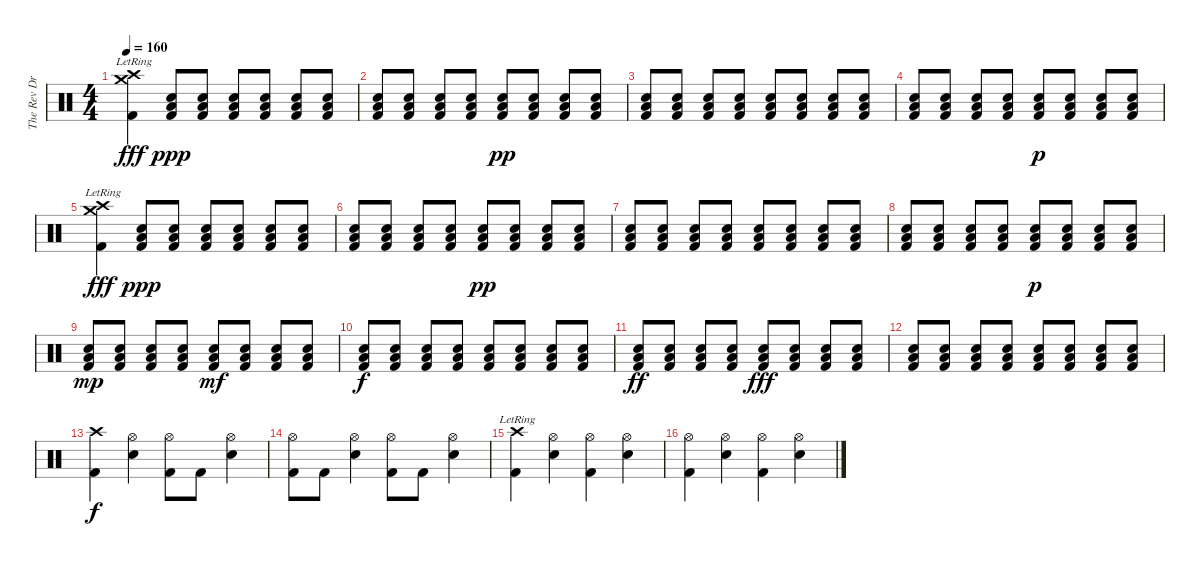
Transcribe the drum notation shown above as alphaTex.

\track ("The Rev Drum" "The Rev Dr") {instrument percussion}
\staff {score}
\articulation defaults
\ts (4 4)
\tempo 160
\clef neutral
\ks c
("Kick (hit) 2" "Crash high (hit)"{lr} "Crash medium (hit)"{lr}).4{dy fff} ("Low Tom (hit)" "Electric Snare (hit)" "Kick (hit) 2").8{dy ppp} ("Low Tom (hit)" "Electric Snare (hit)" "Kick (hit) 2").8 ("Low Tom (hit)" "Electric Snare (hit)" "Kick (hit) 2").8 ("Low Tom (hit)" "Electric Snare (hit)" "Kick (hit) 2").8 ("Low Tom (hit)" "Electric Snare (hit)" "Kick (hit) 2").8 ("Low Tom (hit)" "Electric Snare (hit)" "Kick (hit) 2").8 |
("Low Tom (hit)" "Electric Snare (hit)" "Kick (hit) 2").8 ("Low Tom (hit)" "Electric Snare (hit)" "Kick (hit) 2").8 ("Low Tom (hit)" "Electric Snare (hit)" "Kick (hit) 2").8 ("Low Tom (hit)" "Electric Snare (hit)" "Kick (hit) 2").8 ("Low Tom (hit)" "Electric Snare (hit)" "Kick (hit) 2").8{dy pp} ("Low Tom (hit)" "Electric Snare (hit)" "Kick (hit) 2").8 ("Low Tom (hit)" "Electric Snare (hit)" "Kick (hit) 2").8 ("Low Tom (hit)" "Electric Snare (hit)" "Kick (hit) 2").8 |
("Low Tom (hit)" "Electric Snare (hit)" "Kick (hit) 2").8 ("Low Tom (hit)" "Electric Snare (hit)" "Kick (hit) 2").8 ("Low Tom (hit)" "Electric Snare (hit)" "Kick (hit) 2").8 ("Low Tom (hit)" "Electric Snare (hit)" "Kick (hit) 2").8 ("Low Tom (hit)" "Electric Snare (hit)" "Kick (hit) 2").8 ("Low Tom (hit)" "Electric Snare (hit)" "Kick (hit) 2").8 ("Low Tom (hit)" "Electric Snare (hit)" "Kick (hit) 2").8 ("Low Tom (hit)" "Electric Snare (hit)" "Kick (hit) 2").8 |
("Low Tom (hit)" "Electric Snare (hit)" "Kick (hit) 2").8 ("Low Tom (hit)" "Electric Snare (hit)" "Kick (hit) 2").8 ("Low Tom (hit)" "Electric Snare (hit)" "Kick (hit) 2").8 ("Low Tom (hit)" "Electric Snare (hit)" "Kick (hit) 2").8 ("Low Tom (hit)" "Electric Snare (hit)" "Kick (hit) 2").8{dy p} ("Low Tom (hit)" "Electric Snare (hit)" "Kick (hit) 2").8 ("Low Tom (hit)" "Electric Snare (hit)" "Kick (hit) 2").8 ("Low Tom (hit)" "Electric Snare (hit)" "Kick (hit) 2").8 |
("Kick (hit) 2" "Crash high (hit)"{lr} "Crash medium (hit)"{lr}).4{dy fff} ("Low Tom (hit)" "Electric Snare (hit)" "Kick (hit) 2").8{dy ppp} ("Low Tom (hit)" "Electric Snare (hit)" "Kick (hit) 2").8 ("Low Tom (hit)" "Electric Snare (hit)" "Kick (hit) 2").8 ("Low Tom (hit)" "Electric Snare (hit)" "Kick (hit) 2").8 ("Low Tom (hit)" "Electric Snare (hit)" "Kick (hit) 2").8 ("Low Tom (hit)" "Electric Snare (hit)" "Kick (hit) 2").8 |
("Low Tom (hit)" "Electric Snare (hit)" "Kick (hit) 2").8 ("Low Tom (hit)" "Electric Snare (hit)" "Kick (hit) 2").8 ("Low Tom (hit)" "Electric Snare (hit)" "Kick (hit) 2").8 ("Low Tom (hit)" "Electric Snare (hit)" "Kick (hit) 2").8 ("Low Tom (hit)" "Electric Snare (hit)" "Kick (hit) 2").8{dy pp} ("Low Tom (hit)" "Electric Snare (hit)" "Kick (hit) 2").8 ("Low Tom (hit)" "Electric Snare (hit)" "Kick (hit) 2").8 ("Low Tom (hit)" "Electric Snare (hit)" "Kick (hit) 2").8 |
("Low Tom (hit)" "Electric Snare (hit)" "Kick (hit) 2").8 ("Low Tom (hit)" "Electric Snare (hit)" "Kick (hit) 2").8 ("Low Tom (hit)" "Electric Snare (hit)" "Kick (hit) 2").8 ("Low Tom (hit)" "Electric Snare (hit)" "Kick (hit) 2").8 ("Low Tom (hit)" "Electric Snare (hit)" "Kick (hit) 2").8 ("Low Tom (hit)" "Electric Snare (hit)" "Kick (hit) 2").8 ("Low Tom (hit)" "Electric Snare (hit)" "Kick (hit) 2").8 ("Low Tom (hit)" "Electric Snare (hit)" "Kick (hit) 2").8 |
("Low Tom (hit)" "Electric Snare (hit)" "Kick (hit) 2").8 ("Low Tom (hit)" "Electric Snare (hit)" "Kick (hit) 2").8 ("Low Tom (hit)" "Electric Snare (hit)" "Kick (hit) 2").8 ("Low Tom (hit)" "Electric Snare (hit)" "Kick (hit) 2").8 ("Low Tom (hit)" "Electric Snare (hit)" "Kick (hit) 2").8{dy p} ("Low Tom (hit)" "Electric Snare (hit)" "Kick (hit) 2").8 ("Low Tom (hit)" "Electric Snare (hit)" "Kick (hit) 2").8 ("Low Tom (hit)" "Electric Snare (hit)" "Kick (hit) 2").8 |
("Low Tom (hit)" "Electric Snare (hit)" "Kick (hit) 2").8{dy mp} ("Low Tom (hit)" "Electric Snare (hit)" "Kick (hit) 2").8 ("Low Tom (hit)" "Electric Snare (hit)" "Kick (hit) 2").8 ("Low Tom (hit)" "Electric Snare (hit)" "Kick (hit) 2").8 ("Low Tom (hit)" "Electric Snare (hit)" "Kick (hit) 2").8{dy mf} ("Low Tom (hit)" "Electric Snare (hit)" "Kick (hit) 2").8 ("Low Tom (hit)" "Electric Snare (hit)" "Kick (hit) 2").8 ("Low Tom (hit)" "Electric Snare (hit)" "Kick (hit) 2").8 |
("Low Tom (hit)" "Electric Snare (hit)" "Kick (hit) 2").8{dy f} ("Low Tom (hit)" "Electric Snare (hit)" "Kick (hit) 2").8 ("Low Tom (hit)" "Electric Snare (hit)" "Kick (hit) 2").8 ("Low Tom (hit)" "Electric Snare (hit)" "Kick (hit) 2").8 ("Low Tom (hit)" "Electric Snare (hit)" "Kick (hit) 2").8 ("Low Tom (hit)" "Electric Snare (hit)" "Kick (hit) 2").8 ("Low Tom (hit)" "Electric Snare (hit)" "Kick (hit) 2").8 ("Low Tom (hit)" "Electric Snare (hit)" "Kick (hit) 2").8 |
("Low Tom (hit)" "Electric Snare (hit)" "Kick (hit) 2").8{dy ff} ("Low Tom (hit)" "Electric Snare (hit)" "Kick (hit) 2").8 ("Low Tom (hit)" "Electric Snare (hit)" "Kick (hit) 2").8 ("Low Tom (hit)" "Electric Snare (hit)" "Kick (hit) 2").8 ("Low Tom (hit)" "Electric Snare (hit)" "Kick (hit) 2").8{dy fff} ("Low Tom (hit)" "Electric Snare (hit)" "Kick (hit) 2").8 ("Low Tom (hit)" "Electric Snare (hit)" "Kick (hit) 2").8 ("Low Tom (hit)" "Electric Snare (hit)" "Kick (hit) 2").8 |
("Low Tom (hit)" "Electric Snare (hit)" "Kick (hit) 2").8 ("Low Tom (hit)" "Electric Snare (hit)" "Kick (hit) 2").8 ("Low Tom (hit)" "Electric Snare (hit)" "Kick (hit) 2").8 ("Low Tom (hit)" "Electric Snare (hit)" "Kick (hit) 2").8 ("Low Tom (hit)" "Electric Snare (hit)" "Kick (hit) 2").8 ("Low Tom (hit)" "Electric Snare (hit)" "Kick (hit) 2").8 ("Low Tom (hit)" "Electric Snare (hit)" "Kick (hit) 2").8 ("Low Tom (hit)" "Electric Snare (hit)" "Kick (hit) 2").8 |
("Crash high (hit)" "Kick (hit) 2").4{dy f} ("Hi-Hat (open)" "Electric Snare (hit)").4 ("Hi-Hat (open)" "Kick (hit) 2").8 "Kick (hit) 2".8 ("Hi-Hat (open)" "Electric Snare (hit)").4 |
("Hi-Hat (open)" "Kick (hit) 2").8 "Kick (hit) 2".8 ("Hi-Hat (open)" "Electric Snare (hit)").4 ("Hi-Hat (open)" "Kick (hit) 2").8 "Kick (hit) 2".8 ("Hi-Hat (open)" "Electric Snare (hit)").4 |
("Crash high (hit)" "Kick (hit) 2"{lr}).4 ("Hi-Hat (open)" "Electric Snare (hit)").4 ("Hi-Hat (open)" "Kick (hit) 2").4 ("Hi-Hat (open)" "Electric Snare (hit)").4 |
("Hi-Hat (open)" "Kick (hit) 2").4 ("Hi-Hat (open)" "Electric Snare (hit)").4 ("Hi-Hat (open)" "Kick (hit) 2").4 ("Hi-Hat (open)" "Electric Snare (hit)").4
